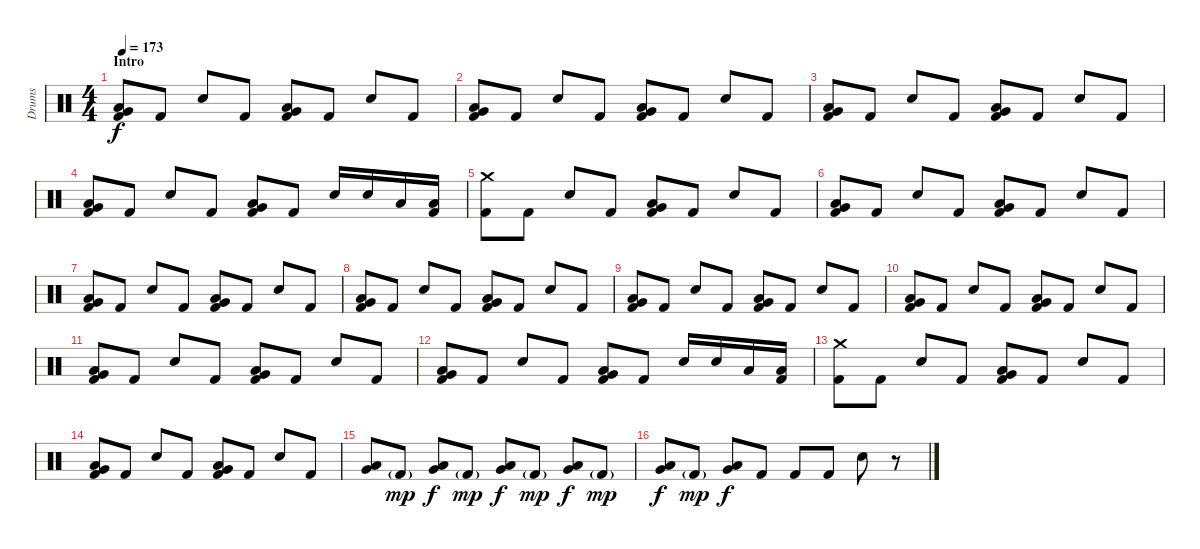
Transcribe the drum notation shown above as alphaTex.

\track ("Drums" "Drums") {instrument percussion}
\staff {score}
\articulation defaults
\ts (4 4)
\section ("" "Intro")
\tempo 173
\clef neutral
\ks c
("Low Tom (hit)" "Very Low Tom (hit)" "Kick (hit) 2").8{dy f} "Kick (hit) 2".8 "Snare (hit) 2".8 "Kick (hit) 2".8 ("Low Tom (hit)" "Very Low Tom (hit)" "Kick (hit) 2").8 "Kick (hit) 2".8 "Snare (hit) 2".8 "Kick (hit) 2".8 |
("Low Tom (hit)" "Very Low Tom (hit)" "Kick (hit) 2").8 "Kick (hit) 2".8 "Snare (hit) 2".8 "Kick (hit) 2".8 ("Low Tom (hit)" "Very Low Tom (hit)" "Kick (hit) 2").8 "Kick (hit) 2".8 "Snare (hit) 2".8 "Kick (hit) 2".8 |
("Low Tom (hit)" "Very Low Tom (hit)" "Kick (hit) 2").8 "Kick (hit) 2".8 "Snare (hit) 2".8 "Kick (hit) 2".8 ("Low Tom (hit)" "Very Low Tom (hit)" "Kick (hit) 2").8 "Kick (hit) 2".8 "Snare (hit) 2".8 "Kick (hit) 2".8 |
("Low Tom (hit)" "Very Low Tom (hit)" "Kick (hit) 2").8 "Kick (hit) 2".8 "Snare (hit) 2".8 "Kick (hit) 2".8 ("Low Tom (hit)" "Very Low Tom (hit)" "Kick (hit) 2").8 "Kick (hit) 2".8 "Snare (hit) 2".16 "Snare (hit) 2".16 "Low Tom (hit)".16 ("Low Tom (hit)" "Kick (hit) 2").16 |
("Crash medium (hit)" "Kick (hit) 2").8 "Kick (hit) 2".8 "Snare (hit) 2".8 "Kick (hit) 2".8 ("Low Tom (hit)" "Very Low Tom (hit)" "Kick (hit) 2").8 "Kick (hit) 2".8 "Snare (hit) 2".8 "Kick (hit) 2".8 |
("Low Tom (hit)" "Very Low Tom (hit)" "Kick (hit) 2").8 "Kick (hit) 2".8 "Snare (hit) 2".8 "Kick (hit) 2".8 ("Low Tom (hit)" "Very Low Tom (hit)" "Kick (hit) 2").8 "Kick (hit) 2".8 "Snare (hit) 2".8 "Kick (hit) 2".8 |
("Low Tom (hit)" "Very Low Tom (hit)" "Kick (hit) 2").8 "Kick (hit) 2".8 "Snare (hit) 2".8 "Kick (hit) 2".8 ("Low Tom (hit)" "Very Low Tom (hit)" "Kick (hit) 2").8 "Kick (hit) 2".8 "Snare (hit) 2".8 "Kick (hit) 2".8 |
("Low Tom (hit)" "Very Low Tom (hit)" "Kick (hit) 2").8 "Kick (hit) 2".8 "Snare (hit) 2".8 "Kick (hit) 2".8 ("Low Tom (hit)" "Very Low Tom (hit)" "Kick (hit) 2").8 "Kick (hit) 2".8 "Snare (hit) 2".8 "Kick (hit) 2".8 |
("Low Tom (hit)" "Very Low Tom (hit)" "Kick (hit) 2").8 "Kick (hit) 2".8 "Snare (hit) 2".8 "Kick (hit) 2".8 ("Low Tom (hit)" "Very Low Tom (hit)" "Kick (hit) 2").8 "Kick (hit) 2".8 "Snare (hit) 2".8 "Kick (hit) 2".8 |
("Low Tom (hit)" "Very Low Tom (hit)" "Kick (hit) 2").8 "Kick (hit) 2".8 "Snare (hit) 2".8 "Kick (hit) 2".8 ("Low Tom (hit)" "Very Low Tom (hit)" "Kick (hit) 2").8 "Kick (hit) 2".8 "Snare (hit) 2".8 "Kick (hit) 2".8 |
("Low Tom (hit)" "Very Low Tom (hit)" "Kick (hit) 2").8 "Kick (hit) 2".8 "Snare (hit) 2".8 "Kick (hit) 2".8 ("Low Tom (hit)" "Very Low Tom (hit)" "Kick (hit) 2").8 "Kick (hit) 2".8 "Snare (hit) 2".8 "Kick (hit) 2".8 |
("Low Tom (hit)" "Very Low Tom (hit)" "Kick (hit) 2").8 "Kick (hit) 2".8 "Snare (hit) 2".8 "Kick (hit) 2".8 ("Low Tom (hit)" "Very Low Tom (hit)" "Kick (hit) 2").8 "Kick (hit) 2".8 "Snare (hit) 2".16 "Snare (hit) 2".16 "Low Tom (hit)".16 ("Low Tom (hit)" "Kick (hit) 2").16 |
("Crash medium (hit)" "Kick (hit) 2").8 "Kick (hit) 2".8 "Snare (hit) 2".8 "Kick (hit) 2".8 ("Low Tom (hit)" "Very Low Tom (hit)" "Kick (hit) 2").8 "Kick (hit) 2".8 "Snare (hit) 2".8 "Kick (hit) 2".8 |
("Low Tom (hit)" "Very Low Tom (hit)" "Kick (hit) 2").8 "Kick (hit) 2".8 "Snare (hit) 2".8 "Kick (hit) 2".8 ("Low Tom (hit)" "Very Low Tom (hit)" "Kick (hit) 2").8 "Kick (hit) 2".8 "Snare (hit) 2".8 "Kick (hit) 2".8 |
("Low Tom (hit)" "Very Low Tom (hit)").8 "Kick (hit) 2"{g}.8{dy mp} ("Low Tom (hit)" "Very Low Tom (hit)").8{dy f} "Kick (hit) 2"{g}.8{dy mp} ("Low Tom (hit)" "Very Low Tom (hit)").8{dy f} "Kick (hit) 2"{g}.8{dy mp} ("Low Tom (hit)" "Very Low Tom (hit)").8{dy f} "Kick (hit) 2"{g}.8{dy mp} |
("Low Tom (hit)" "Very Low Tom (hit)").8{dy f} "Kick (hit) 2"{g}.8{dy mp} ("Low Tom (hit)" "Very Low Tom (hit)").8{dy f} "Kick (hit) 2".8 "Kick (hit) 2".8 "Kick (hit) 2".8 "Snare (hit) 2".8 r.8
